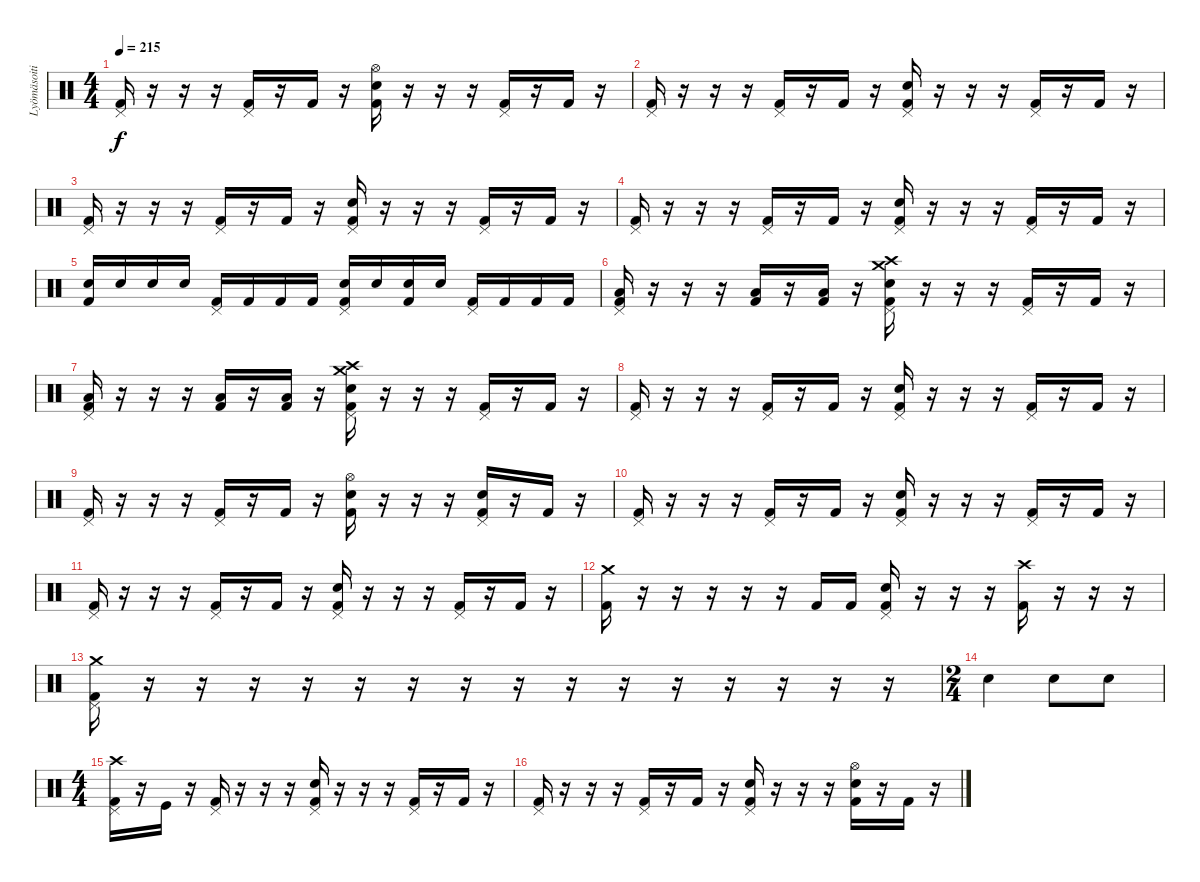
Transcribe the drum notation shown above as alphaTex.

\track ("Lyömäsoitin" "Lyömäsoiti") {instrument percussion}
\staff {score}
\articulation defaults
\ts (4 4)
\tempo 215
\clef neutral
\ks c
("Pedal Hi-Hat (hit)" "Kick (hit) 2").16{dy f} r.16 r.16 r.16 ("Pedal Hi-Hat (hit)" "Kick (hit) 2").16 r.16 "Kick (hit) 2".16 r.16 ("Electric Snare (hit)" "Hi-Hat (open)" "Kick (hit) 2").16 r.16 r.16 r.16 ("Pedal Hi-Hat (hit)" "Kick (hit) 2").16 r.16 "Kick (hit) 2".16 r.16 |
("Pedal Hi-Hat (hit)" "Kick (hit) 2").16 r.16 r.16 r.16 ("Pedal Hi-Hat (hit)" "Kick (hit) 2").16 r.16 "Kick (hit) 2".16 r.16 ("Electric Snare (hit)" "Pedal Hi-Hat (hit)" "Kick (hit) 2").16 r.16 r.16 r.16 ("Pedal Hi-Hat (hit)" "Kick (hit) 2").16 r.16 "Kick (hit) 2".16 r.16 |
("Pedal Hi-Hat (hit)" "Kick (hit) 2").16 r.16 r.16 r.16 ("Pedal Hi-Hat (hit)" "Kick (hit) 2").16 r.16 "Kick (hit) 2".16 r.16 ("Electric Snare (hit)" "Pedal Hi-Hat (hit)" "Kick (hit) 2").16 r.16 r.16 r.16 ("Pedal Hi-Hat (hit)" "Kick (hit) 2").16 r.16 "Kick (hit) 2".16 r.16 |
("Pedal Hi-Hat (hit)" "Kick (hit) 2").16 r.16 r.16 r.16 ("Pedal Hi-Hat (hit)" "Kick (hit) 2").16 r.16 "Kick (hit) 2".16 r.16 ("Electric Snare (hit)" "Pedal Hi-Hat (hit)" "Kick (hit) 2").16 r.16 r.16 r.16 ("Pedal Hi-Hat (hit)" "Kick (hit) 2").16 r.16 "Kick (hit) 2".16 r.16 |
("Electric Snare (hit)" "Kick (hit) 2").16 "Electric Snare (hit)".16 "Electric Snare (hit)".16 "Electric Snare (hit)".16 ("Pedal Hi-Hat (hit)" "Kick (hit) 2").16 "Kick (hit) 2".16 "Kick (hit) 2".16 "Kick (hit) 2".16 ("Electric Snare (hit)" "Pedal Hi-Hat (hit)" "Kick (hit) 2").16 "Electric Snare (hit)".16 ("Electric Snare (hit)" "Kick (hit) 2").16 "Electric Snare (hit)".16 ("Pedal Hi-Hat (hit)" "Kick (hit) 2").16 "Kick (hit) 2".16 "Kick (hit) 2".16 "Kick (hit) 2".16 |
("Low Floor Tom (hit)" "Pedal Hi-Hat (hit)" "Kick (hit) 2").16 r.16 r.16 r.16 ("Low Floor Tom (hit)" "Kick (hit) 2").16 r.16 ("Low Floor Tom (hit)" "Kick (hit) 2").16 r.16 ("Electric Snare (hit)" "Pedal Hi-Hat (hit)" "Kick (hit) 2" "Crash medium (hit)" "Crash high (hit)").16 r.16 r.16 r.16 ("Pedal Hi-Hat (hit)" "Kick (hit) 2").16 r.16 "Kick (hit) 2".16 r.16 |
("Low Floor Tom (hit)" "Pedal Hi-Hat (hit)" "Kick (hit) 2").16 r.16 r.16 r.16 ("Low Floor Tom (hit)" "Kick (hit) 2").16 r.16 ("Low Floor Tom (hit)" "Kick (hit) 2").16 r.16 ("Electric Snare (hit)" "Pedal Hi-Hat (hit)" "Kick (hit) 2" "Crash medium (hit)" "Crash high (hit)").16 r.16 r.16 r.16 ("Pedal Hi-Hat (hit)" "Kick (hit) 2").16 r.16 "Kick (hit) 2".16 r.16 |
("Pedal Hi-Hat (hit)" "Kick (hit) 2").16 r.16 r.16 r.16 ("Pedal Hi-Hat (hit)" "Kick (hit) 2").16 r.16 "Kick (hit) 2".16 r.16 ("Electric Snare (hit)" "Pedal Hi-Hat (hit)" "Kick (hit) 2").16 r.16 r.16 r.16 ("Pedal Hi-Hat (hit)" "Kick (hit) 2").16 r.16 "Kick (hit) 2".16 r.16 |
("Pedal Hi-Hat (hit)" "Kick (hit) 2").16 r.16 r.16 r.16 ("Pedal Hi-Hat (hit)" "Kick (hit) 2").16 r.16 "Kick (hit) 2".16 r.16 ("Electric Snare (hit)" "Hi-Hat (open)" "Kick (hit) 2").16 r.16 r.16 r.16 ("Electric Snare (hit)" "Pedal Hi-Hat (hit)" "Kick (hit) 2").16 r.16 "Kick (hit) 2".16 r.16 |
("Pedal Hi-Hat (hit)" "Kick (hit) 2").16 r.16 r.16 r.16 ("Pedal Hi-Hat (hit)" "Kick (hit) 2").16 r.16 "Kick (hit) 2".16 r.16 ("Electric Snare (hit)" "Pedal Hi-Hat (hit)" "Kick (hit) 2").16 r.16 r.16 r.16 ("Pedal Hi-Hat (hit)" "Kick (hit) 2").16 r.16 "Kick (hit) 2".16 r.16 |
("Pedal Hi-Hat (hit)" "Kick (hit) 2").16 r.16 r.16 r.16 ("Pedal Hi-Hat (hit)" "Kick (hit) 2").16 r.16 "Kick (hit) 2".16 r.16 ("Electric Snare (hit)" "Pedal Hi-Hat (hit)" "Kick (hit) 2").16 r.16 r.16 r.16 ("Pedal Hi-Hat (hit)" "Kick (hit) 2").16 r.16 "Kick (hit) 2".16 r.16 |
("Crash medium (hit)" "Kick (hit) 2").16 r.16 r.16 r.16 r.16 r.16 "Kick (hit) 2".16 "Kick (hit) 2".16 ("Electric Snare (hit)" "Pedal Hi-Hat (hit)" "Kick (hit) 2").16 r.16 r.16 r.16 ("Crash high (hit)" "Kick (hit) 2").16 r.16 r.16 r.16 |
("Crash medium (hit)" "Pedal Hi-Hat (hit)" "Kick (hit) 2").16 r.16 r.16 r.16 r.16 r.16 r.16 r.16 r.16 r.16 r.16 r.16 r.16 r.16 r.16 r.16 |
\ts (2 4)
"Electric Snare (hit)".4 "Electric Snare (hit)".8 "Electric Snare (hit)".8 |
\ts (4 4)
("Crash high (hit)" "Pedal Hi-Hat (hit)" "Kick (hit) 2").16 r.16 "Kick (hit)".16 r.16 ("Pedal Hi-Hat (hit)" "Kick (hit) 2").16 r.16 r.16 r.16 ("Electric Snare (hit)" "Pedal Hi-Hat (hit)" "Kick (hit) 2").16 r.16 r.16 r.16 ("Pedal Hi-Hat (hit)" "Kick (hit) 2").16 r.16 "Kick (hit) 2".16 r.16 |
("Pedal Hi-Hat (hit)" "Kick (hit) 2").16 r.16 r.16 r.16 ("Pedal Hi-Hat (hit)" "Kick (hit) 2").16 r.16 "Kick (hit) 2".16 r.16 ("Electric Snare (hit)" "Pedal Hi-Hat (hit)" "Kick (hit) 2").16 r.16 r.16 r.16 ("Electric Snare (hit)" "Hi-Hat (open)" "Kick (hit) 2").16 r.16 "Kick (hit) 2".16 r.16
